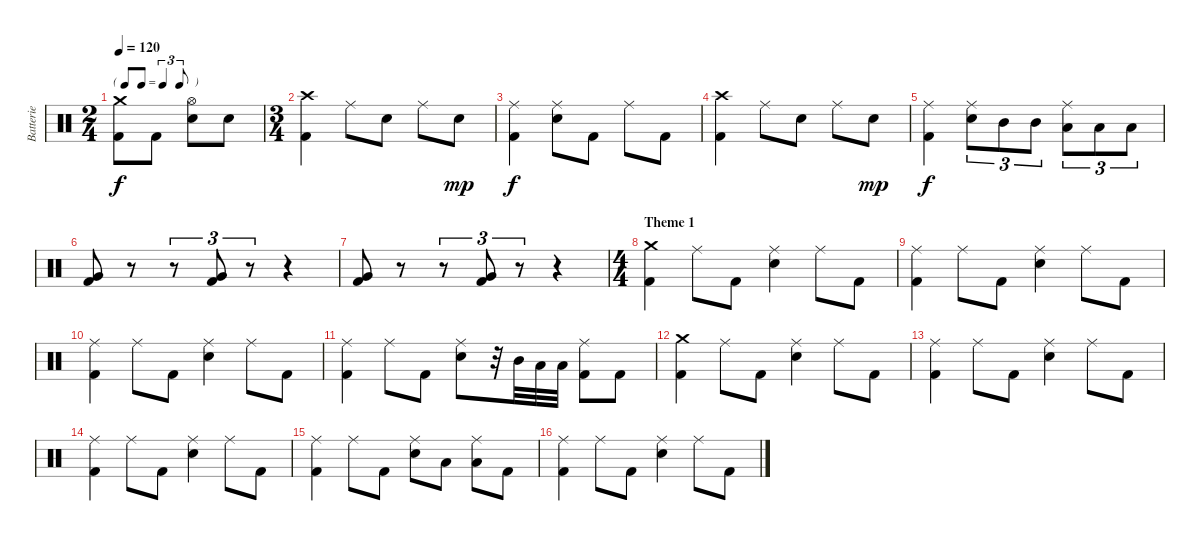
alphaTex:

\track ("Batterie" "Batterie") {instrument percussion}
\staff {score}
\articulation defaults
\ts (2 4)
\tf triplet8th
\tempo 120
\clef neutral
\ks c
("Crash medium (hit)" "Kick (hit) 2").8{dy f} "Kick (hit) 2".8 ("Hi-Hat (open)" "Electric Snare (hit)").8 "Electric Snare (hit)".8 |
\ts (3 4)
("Crash high (hit)" "Kick (hit) 2").4 "Ride (middle)".8 "Electric Snare (hit)".8 "Ride (middle)".8 "Electric Snare (hit)".8{dy mp} |
("Ride (middle)" "Kick (hit) 2").4{dy f} ("Ride (middle)" "Electric Snare (hit)").8 "Kick (hit) 2".8 "Ride (middle)".8 "Kick (hit) 2".8 |
("Crash high (hit)" "Kick (hit) 2").4 "Ride (middle)".8 "Electric Snare (hit)".8 "Ride (middle)".8 "Electric Snare (hit)".8{dy mp} |
("Ride (middle)" "Kick (hit) 2").4{dy f} ("Ride (middle)" "Electric Snare (hit)").8{tu (3 2)} "Mid Tom (hit)".8{tu (3 2)} "Mid Tom (hit)".8{tu (3 2)} ("Ride (middle)" "Low Tom (hit)").8{tu (3 2)} "Low Tom (hit)".8{tu (3 2)} "Low Floor Tom (hit)".8{tu (3 2)} |
("Very Low Tom (hit)" "Kick (hit) 2").8 r.8 r.8{tu (3 2)} ("Very Low Tom (hit)" "Kick (hit) 2").8{tu (3 2)} r.8{tu (3 2)} r.4 |
("Very Low Tom (hit)" "Kick (hit) 2").8 r.8 r.8{tu (3 2)} ("Very Low Tom (hit)" "Kick (hit) 2").8{tu (3 2)} r.8{tu (3 2)} r.4 |
\ts (4 4)
\section ("" "Theme 1")
("Crash medium (hit)" "Kick (hit) 2").4 "Ride (middle)".8 "Kick (hit) 2".8 ("Ride (middle)" "Electric Snare (hit)").4 "Ride (middle)".8 "Kick (hit) 2".8 |
("Ride (middle)" "Kick (hit) 2").4 "Ride (middle)".8 "Kick (hit) 2".8 ("Ride (middle)" "Electric Snare (hit)").4 "Ride (middle)".8 "Kick (hit) 2".8 |
("Ride (middle)" "Kick (hit) 2").4 "Ride (middle)".8 "Kick (hit) 2".8 ("Ride (middle)" "Electric Snare (hit)").4 "Ride (middle)".8 "Kick (hit) 2".8 |
("Ride (middle)" "Kick (hit) 2").4 "Ride (middle)".8 "Kick (hit) 2".8 ("Ride (middle)" "Electric Snare (hit)").8 r.32 "Mid Tom (hit)".32 "Low Tom (hit)".32 "Low Tom (hit)".32 ("Ride (middle)" "Kick (hit) 2").8 "Kick (hit) 2".8 |
("Crash medium (hit)" "Kick (hit) 2").4 "Ride (middle)".8 "Kick (hit) 2".8 ("Ride (middle)" "Electric Snare (hit)").4 "Ride (middle)".8 "Kick (hit) 2".8 |
("Ride (middle)" "Kick (hit) 2").4 "Ride (middle)".8 "Kick (hit) 2".8 ("Ride (middle)" "Electric Snare (hit)").4 "Ride (middle)".8 "Kick (hit) 2".8 |
("Ride (middle)" "Kick (hit) 2").4 "Ride (middle)".8 "Kick (hit) 2".8 ("Ride (middle)" "Electric Snare (hit)").4 "Ride (middle)".8 "Kick (hit) 2".8 |
("Ride (middle)" "Kick (hit) 2").4 "Ride (middle)".8 "Kick (hit) 2".8 ("Ride (middle)" "Electric Snare (hit)").8 "Low Tom (hit)".8 ("Ride (middle)" "Low Tom (hit)").8 "Kick (hit) 2".8 |
("Ride (middle)" "Kick (hit) 2").4 "Ride (middle)".8 "Kick (hit) 2".8 ("Ride (middle)" "Electric Snare (hit)").4 "Ride (middle)".8 "Kick (hit) 2".8
